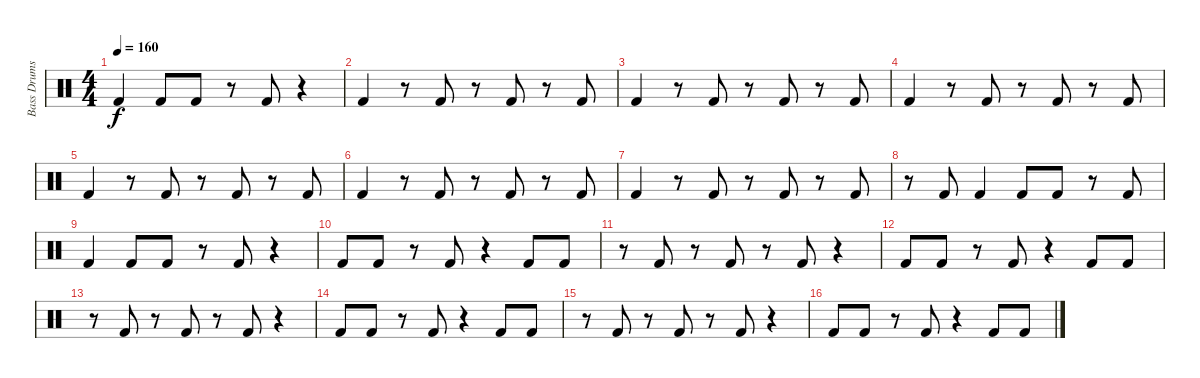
\track ("Bass Drums" "Bass Drums") {instrument percussion}
\staff {score}
\articulation defaults
\ts (4 4)
\tempo 160
\clef neutral
\ks c "Kick (hit) 2".4{dy f} "Kick (hit) 2".8 "Kick (hit) 2".8
r.8 "Kick (hit) 2".8 r.4 |
"Kick (hit) 2".4 r.8 "Kick (hit) 2".8 r.8 "Kick (hit) 2".8 r.8 "Kick (hit) 2".8 |
"Kick (hit) 2".4 r.8 "Kick (hit) 2".8 r.8 "Kick (hit) 2".8 r.8 "Kick (hit) 2".8 |
"Kick (hit) 2".4 r.8 "Kick (hit) 2".8 r.8 "Kick (hit) 2".8 r.8 "Kick (hit) 2".8 |
"Kick (hit) 2".4 r.8 "Kick (hit) 2".8 r.8 "Kick (hit) 2".8 r.8 "Kick (hit) 2".8 |
"Kick (hit) 2".4 r.8 "Kick (hit) 2".8 r.8 "Kick (hit) 2".8 r.8 "Kick (hit) 2".8 |
"Kick (hit) 2".4 r.8 "Kick (hit) 2".8 r.8 "Kick (hit) 2".8 r.8 "Kick (hit) 2".8 |
r.8 "Kick (hit) 2".8 "Kick (hit) 2".4 "Kick (hit) 2".8 "Kick (hit) 2".8 r.8 "Kick (hit) 2".8 |
"Kick (hit) 2".4 "Kick (hit) 2".8 "Kick (hit) 2".8 r.8 "Kick (hit) 2".8 r.4 |
"Kick (hit) 2".8 "Kick (hit) 2".8 r.8 "Kick (hit) 2".8 r.4 "Kick (hit) 2".8 "Kick (hit) 2".8 |
r.8 "Kick (hit) 2".8 r.8 "Kick (hit) 2".8 r.8 "Kick (hit) 2".8 r.4 |
"Kick (hit) 2".8 "Kick (hit) 2".8 r.8 "Kick (hit) 2".8 r.4 "Kick (hit) 2".8 "Kick (hit) 2".8 |
r.8 "Kick (hit) 2".8 r.8 "Kick (hit) 2".8 r.8 "Kick (hit) 2".8 r.4 |
"Kick (hit) 2".8 "Kick (hit) 2".8 r.8 "Kick (hit) 2".8 r.4 "Kick (hit) 2".8 "Kick (hit) 2".8 |
r.8 "Kick (hit) 2".8 r.8 "Kick (hit) 2".8 r.8 "Kick (hit) 2".8 r.4 |
"Kick (hit) 2".8 "Kick (hit) 2".8 r.8 "Kick (hit) 2".8 r.4 "Kick (hit) 2".8 "Kick (hit) 2".8
